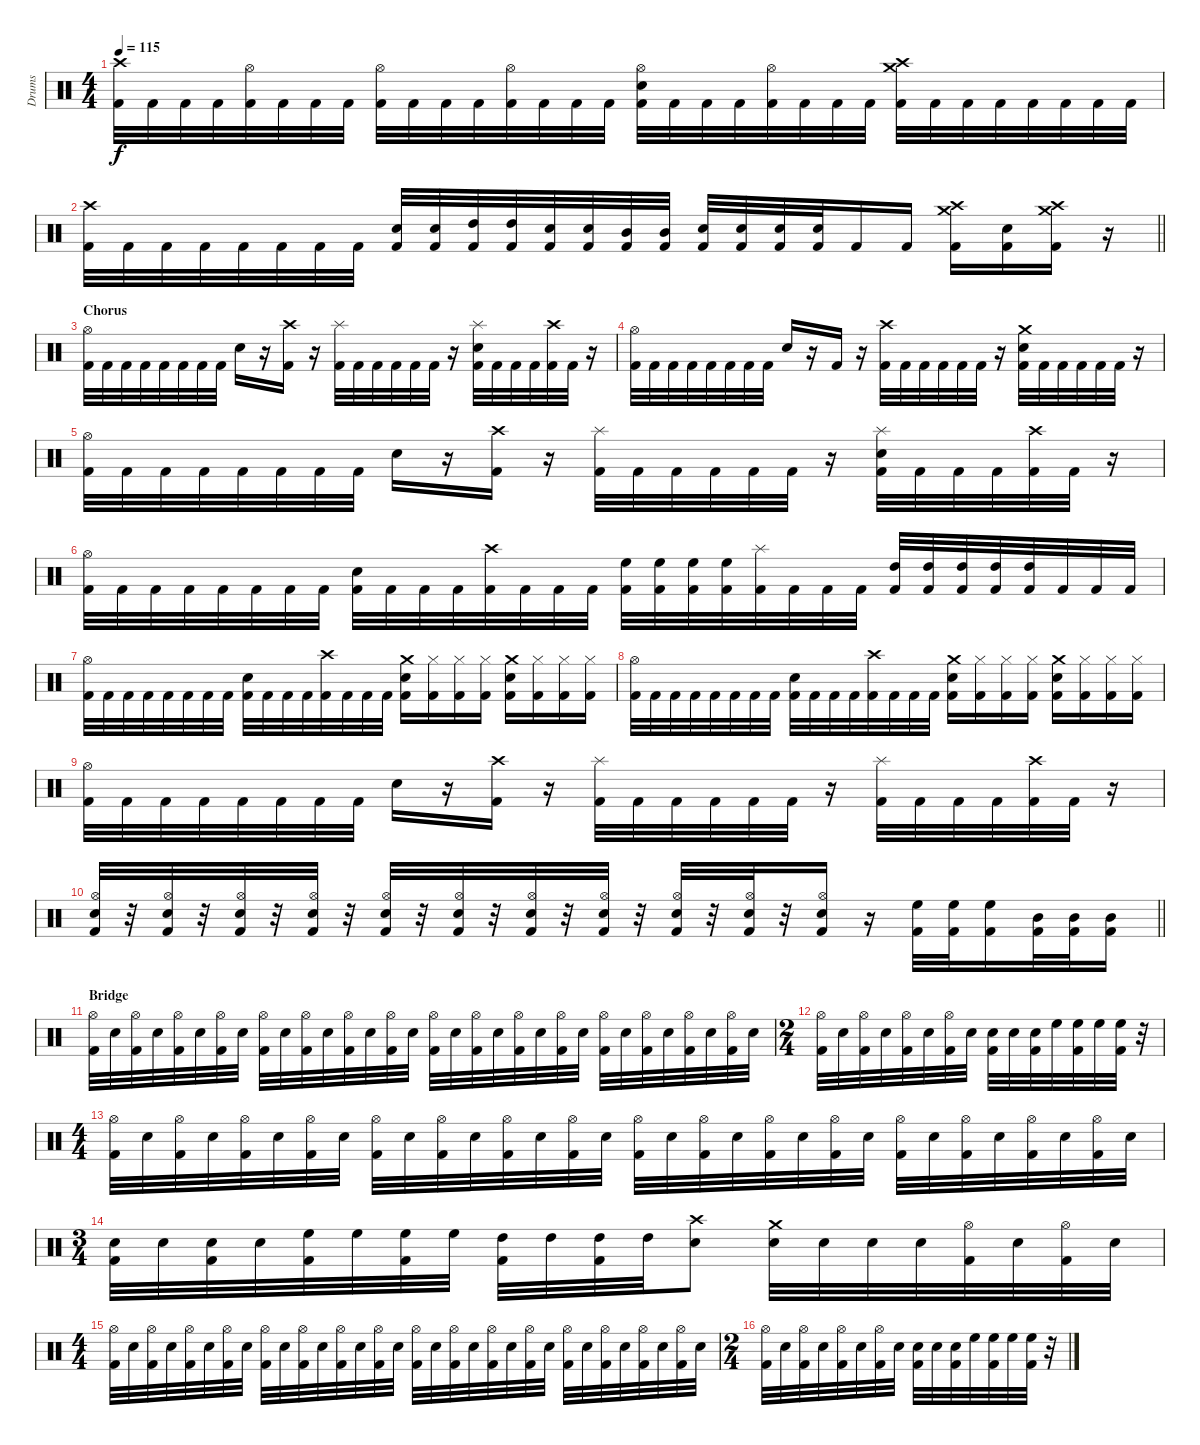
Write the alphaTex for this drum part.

\track ("Drums" "Drums") {instrument percussion}
\staff {score}
\articulation defaults
\ts (4 4)
\tempo 115
\clef neutral
\ks c
("Crash high (hit)" "Kick (hit) 2").32{dy f} "Kick (hit) 2".32 "Kick (hit) 2".32 "Kick (hit) 2".32 ("Hi-Hat (open)" "Kick (hit) 2").32 "Kick (hit) 2".32 "Kick (hit) 2".32 "Kick (hit) 2".32 ("Hi-Hat (open)" "Kick (hit) 2").32 "Kick (hit) 2".32 "Kick (hit) 2".32 "Kick (hit) 2".32 ("Hi-Hat (open)" "Kick (hit) 2").32 "Kick (hit) 2".32 "Kick (hit) 2".32 "Kick (hit) 2".32 ("Hi-Hat (open)" "Electric Snare (hit)" "Kick (hit) 2").32 "Kick (hit) 2".32 "Kick (hit) 2".32 "Kick (hit) 2".32 ("Hi-Hat (open)" "Kick (hit) 2").32 "Kick (hit) 2".32 "Kick (hit) 2".32 "Kick (hit) 2".32 ("Crash medium (hit)" "Crash high (hit)" "Kick (hit) 2").32 "Kick (hit) 2".32 "Kick (hit) 2".32 "Kick (hit) 2".32 "Kick (hit) 2".32 "Kick (hit) 2".32 "Kick (hit) 2".32 "Kick (hit) 2".32 |
\barLineRight lightlight
("Crash high (hit)" "Kick (hit) 2").32 "Kick (hit) 2".32 "Kick (hit) 2".32 "Kick (hit) 2".32 "Kick (hit) 2".32 "Kick (hit) 2".32 "Kick (hit) 2".32 "Kick (hit) 2".32 ("Electric Snare (hit)" "Kick (hit) 2").32 ("Electric Snare (hit)" "Kick (hit) 2").32 ("High Tom (hit)" "Kick (hit) 2").32 ("High Tom (hit)" "Kick (hit) 2").32 ("Electric Snare (hit)" "Kick (hit) 2").32 ("Electric Snare (hit)" "Kick (hit) 2").32 ("Mid Tom (hit)" "Kick (hit) 2").32 ("Mid Tom (hit)" "Kick (hit) 2").32 ("Electric Snare (hit)" "Kick (hit) 2").32 ("Electric Snare (hit)" "Kick (hit) 2").32 ("Electric Snare (hit)" "Kick (hit) 2").32 ("Electric Snare (hit)" "Kick (hit) 2").32 "Kick (hit) 2".16 "Kick (hit) 2".16 ("Crash medium (hit)" "Crash high (hit)" "Kick (hit) 2").16 ("Electric Snare (hit)" "Kick (hit) 2").16 ("Crash medium (hit)" "Crash high (hit)" "Kick (hit) 2").16 r.16 |
\section ("" "Chorus")
("Hi-Hat (open)" "Kick (hit) 2").32 "Kick (hit) 2".32 "Kick (hit) 2".32 "Kick (hit) 2".32 "Kick (hit) 2".32 "Kick (hit) 2".32 "Kick (hit) 2".32 "Kick (hit) 2".32 "Electric Snare (hit)".16 r.16 ("Crash high (hit)" "Kick (hit) 2").16 r.16 ("Splash (hit)" "Kick (hit) 2").32 "Kick (hit) 2".32 "Kick (hit) 2".32 "Kick (hit) 2".32 "Kick (hit) 2".32 "Kick (hit) 2".32 r.16 ("Splash (hit)" "Electric Snare (hit)" "Kick (hit) 2").32 "Kick (hit) 2".32 "Kick (hit) 2".32 "Kick (hit) 2".32 ("Crash high (hit)" "Kick (hit) 2").32 "Kick (hit) 2".32 r.16 |
("Hi-Hat (open)" "Kick (hit) 2").32 "Kick (hit) 2".32 "Kick (hit) 2".32 "Kick (hit) 2".32 "Kick (hit) 2".32 "Kick (hit) 2".32 "Kick (hit) 2".32 "Kick (hit) 2".32 "Electric Snare (hit)".16 r.16 "Kick (hit) 2".16 r.16 ("Crash high (hit)" "Kick (hit) 2").32 "Kick (hit) 2".32 "Kick (hit) 2".32 "Kick (hit) 2".32 "Kick (hit) 2".32 "Kick (hit) 2".32 r.16 ("Crash medium (hit)" "Electric Snare (hit)" "Kick (hit) 2").32 "Kick (hit) 2".32 "Kick (hit) 2".32 "Kick (hit) 2".32 "Kick (hit) 2".32 "Kick (hit) 2".32 r.16 |
("Hi-Hat (open)" "Kick (hit) 2").32 "Kick (hit) 2".32 "Kick (hit) 2".32 "Kick (hit) 2".32 "Kick (hit) 2".32 "Kick (hit) 2".32 "Kick (hit) 2".32 "Kick (hit) 2".32 "Electric Snare (hit)".16 r.16 ("Crash high (hit)" "Kick (hit) 2").16 r.16 ("Splash (hit)" "Kick (hit) 2").32 "Kick (hit) 2".32 "Kick (hit) 2".32 "Kick (hit) 2".32 "Kick (hit) 2".32 "Kick (hit) 2".32 r.16 ("Splash (hit)" "Electric Snare (hit)" "Kick (hit) 2").32 "Kick (hit) 2".32 "Kick (hit) 2".32 "Kick (hit) 2".32 ("Crash high (hit)" "Kick (hit) 2").32 "Kick (hit) 2".32 r.16 |
("Hi-Hat (open)" "Kick (hit) 2").32 "Kick (hit) 2".32 "Kick (hit) 2".32 "Kick (hit) 2".32 "Kick (hit) 2".32 "Kick (hit) 2".32 "Kick (hit) 2".32 "Kick (hit) 2".32 ("Electric Snare (hit)" "Kick (hit) 2").32 "Kick (hit) 2".32 "Kick (hit) 2".32 "Kick (hit) 2".32 ("Crash high (hit)" "Kick (hit) 2").32 "Kick (hit) 2".32 "Kick (hit) 2".32 "Kick (hit) 2".32 ("High Floor Tom (hit)" "Kick (hit) 2").32 ("High Floor Tom (hit)" "Kick (hit) 2").32 ("High Floor Tom (hit)" "Kick (hit) 2").32 ("High Floor Tom (hit)" "Kick (hit) 2").32 ("Splash (hit)" "Kick (hit) 2").32 "Kick (hit) 2".32 "Kick (hit) 2".32 "Kick (hit) 2".32 ("High Tom (hit)" "Kick (hit) 2").32 ("High Tom (hit)" "Kick (hit) 2").32 ("High Tom (hit)" "Kick (hit) 2").32 ("High Tom (hit)" "Kick (hit) 2").32 ("High Tom (hit)" "Kick (hit) 2").32 "Kick (hit) 2".32 "Kick (hit) 2".32 "Kick (hit) 2".32 |
("Hi-Hat (open)" "Kick (hit) 2").32 "Kick (hit) 2".32 "Kick (hit) 2".32 "Kick (hit) 2".32 "Kick (hit) 2".32 "Kick (hit) 2".32 "Kick (hit) 2".32 "Kick (hit) 2".32 ("Electric Snare (hit)" "Kick (hit) 2").32 "Kick (hit) 2".32 "Kick (hit) 2".32 "Kick (hit) 2".32 ("Crash high (hit)" "Kick (hit) 2").32 "Kick (hit) 2".32 "Kick (hit) 2".32 "Kick (hit) 2".32 ("Crash medium (hit)" "Electric Snare (hit)" "Kick (hit) 2").16 ("Hi-Hat (closed)" "Kick (hit) 2").16 ("Hi-Hat (closed)" "Kick (hit) 2").16 ("Hi-Hat (closed)" "Kick (hit) 2").16 ("Crash medium (hit)" "Electric Snare (hit)" "Kick (hit) 2").16 ("Hi-Hat (closed)" "Kick (hit) 2").16 ("Hi-Hat (closed)" "Kick (hit) 2").16 ("Hi-Hat (closed)" "Kick (hit) 2").16 |
("Hi-Hat (open)" "Kick (hit) 2").32 "Kick (hit) 2".32 "Kick (hit) 2".32 "Kick (hit) 2".32 "Kick (hit) 2".32 "Kick (hit) 2".32 "Kick (hit) 2".32 "Kick (hit) 2".32 ("Electric Snare (hit)" "Kick (hit) 2").32 "Kick (hit) 2".32 "Kick (hit) 2".32 "Kick (hit) 2".32 ("Crash high (hit)" "Kick (hit) 2").32 "Kick (hit) 2".32 "Kick (hit) 2".32 "Kick (hit) 2".32 ("Crash medium (hit)" "Electric Snare (hit)" "Kick (hit) 2").16 ("Hi-Hat (closed)" "Kick (hit) 2").16 ("Hi-Hat (closed)" "Kick (hit) 2").16 ("Hi-Hat (closed)" "Kick (hit) 2").16 ("Crash medium (hit)" "Electric Snare (hit)" "Kick (hit) 2").16 ("Hi-Hat (closed)" "Kick (hit) 2").16 ("Hi-Hat (closed)" "Kick (hit) 2").16 ("Hi-Hat (closed)" "Kick (hit) 2").16 |
("Hi-Hat (open)" "Kick (hit) 2").32 "Kick (hit) 2".32 "Kick (hit) 2".32 "Kick (hit) 2".32 "Kick (hit) 2".32 "Kick (hit) 2".32 "Kick (hit) 2".32 "Kick (hit) 2".32 "Electric Snare (hit)".16 r.16 ("Crash high (hit)" "Kick (hit) 2").16 r.16 ("Splash (hit)" "Kick (hit) 2").32 "Kick (hit) 2".32 "Kick (hit) 2".32 "Kick (hit) 2".32 "Kick (hit) 2".32 "Kick (hit) 2".32 r.16 ("Splash (hit)" "Kick (hit) 2").32 "Kick (hit) 2".32 "Kick (hit) 2".32 "Kick (hit) 2".32 ("Crash high (hit)" "Kick (hit) 2").32 "Kick (hit) 2".32 r.16 |
\barLineRight lightlight
("Hi-Hat (open)" "Electric Snare (hit)" "Kick (hit) 2").32 r.32 ("Hi-Hat (open)" "Electric Snare (hit)" "Kick (hit) 2").32 r.32 ("Hi-Hat (open)" "Electric Snare (hit)" "Kick (hit) 2").32 r.32 ("Hi-Hat (open)" "Electric Snare (hit)" "Kick (hit) 2").32 r.32 ("Hi-Hat (open)" "Electric Snare (hit)" "Kick (hit) 2").32 r.32 ("Hi-Hat (open)" "Electric Snare (hit)" "Kick (hit) 2").32 r.32 ("Hi-Hat (open)" "Electric Snare (hit)" "Kick (hit) 2").32 r.32 ("Hi-Hat (open)" "Electric Snare (hit)" "Kick (hit) 2").32 r.32 ("Hi-Hat (open)" "Electric Snare (hit)" "Kick (hit) 2").32 r.32 ("Hi-Hat (open)" "Electric Snare (hit)" "Kick (hit) 2").32 r.32 ("Hi-Hat (open)" "Electric Snare (hit)" "Kick (hit) 2").16 r.16 ("High Floor Tom (hit)" "Kick (hit) 2").32 ("High Floor Tom (hit)" "Kick (hit) 2").32 ("High Floor Tom (hit)" "Kick (hit) 2").16 ("Mid Tom (hit)" "Kick (hit) 2").32 ("Mid Tom (hit)" "Kick (hit) 2").32 ("Mid Tom (hit)" "Kick (hit) 2").16 |
\section ("" "Bridge")
("Hi-Hat (open)" "Kick (hit) 2").32 "Electric Snare (hit)".32 ("Hi-Hat (open)" "Kick (hit) 2").32 "Electric Snare (hit)".32 ("Hi-Hat (open)" "Kick (hit) 2").32 "Electric Snare (hit)".32 ("Hi-Hat (open)" "Kick (hit) 2").32 "Electric Snare (hit)".32 ("Hi-Hat (open)" "Kick (hit) 2").32 "Electric Snare (hit)".32 ("Hi-Hat (open)" "Kick (hit) 2").32 "Electric Snare (hit)".32 ("Hi-Hat (open)" "Kick (hit) 2").32 "Electric Snare (hit)".32 ("Hi-Hat (open)" "Kick (hit) 2").32 "Electric Snare (hit)".32 ("Hi-Hat (open)" "Kick (hit) 2").32 "Electric Snare (hit)".32 ("Hi-Hat (open)" "Kick (hit) 2").32 "Electric Snare (hit)".32 ("Hi-Hat (open)" "Kick (hit) 2").32 "Electric Snare (hit)".32 ("Hi-Hat (open)" "Kick (hit) 2").32 "Electric Snare (hit)".32 ("Hi-Hat (open)" "Kick (hit) 2").32 "Electric Snare (hit)".32 ("Hi-Hat (open)" "Kick (hit) 2").32 "Electric Snare (hit)".32 ("Hi-Hat (open)" "Kick (hit) 2").32 "Electric Snare (hit)".32 ("Hi-Hat (open)" "Kick (hit) 2").32 "Electric Snare (hit)".32 |
\ts (2 4)
("Hi-Hat (open)" "Kick (hit) 2").32 "Electric Snare (hit)".32 ("Hi-Hat (open)" "Kick (hit) 2").32 "Electric Snare (hit)".32 ("Hi-Hat (open)" "Kick (hit) 2").32 "Electric Snare (hit)".32 ("Hi-Hat (open)" "Kick (hit) 2").32 "Electric Snare (hit)".32 ("Electric Snare (hit)" "Kick (hit) 2").32 "Electric Snare (hit)".32 ("Electric Snare (hit)" "Kick (hit) 2").32 "High Floor Tom (hit)".32 ("High Floor Tom (hit)" "Kick (hit) 2").32 "High Floor Tom (hit)".32 ("High Floor Tom (hit)" "Kick (hit) 2").32 r.32 |
\ts (4 4)
("Hi-Hat (open)" "Kick (hit) 2").32 "Electric Snare (hit)".32 ("Hi-Hat (open)" "Kick (hit) 2").32 "Electric Snare (hit)".32 ("Hi-Hat (open)" "Kick (hit) 2").32 "Electric Snare (hit)".32 ("Hi-Hat (open)" "Kick (hit) 2").32 "Electric Snare (hit)".32 ("Hi-Hat (open)" "Kick (hit) 2").32 "Electric Snare (hit)".32 ("Hi-Hat (open)" "Kick (hit) 2").32 "Electric Snare (hit)".32 ("Hi-Hat (open)" "Kick (hit) 2").32 "Electric Snare (hit)".32 ("Hi-Hat (open)" "Kick (hit) 2").32 "Electric Snare (hit)".32 ("Hi-Hat (open)" "Kick (hit) 2").32 "Electric Snare (hit)".32 ("Hi-Hat (open)" "Kick (hit) 2").32 "Electric Snare (hit)".32 ("Hi-Hat (open)" "Kick (hit) 2").32 "Electric Snare (hit)".32 ("Hi-Hat (open)" "Kick (hit) 2").32 "Electric Snare (hit)".32 ("Hi-Hat (open)" "Kick (hit) 2").32 "Electric Snare (hit)".32 ("Hi-Hat (open)" "Kick (hit) 2").32 "Electric Snare (hit)".32 ("Hi-Hat (open)" "Kick (hit) 2").32 "Electric Snare (hit)".32 ("Hi-Hat (open)" "Kick (hit) 2").32 "Electric Snare (hit)".32 |
\ts (3 4)
("Electric Snare (hit)" "Kick (hit) 2").32 "Electric Snare (hit)".32 ("Electric Snare (hit)" "Kick (hit) 2").32 "Electric Snare (hit)".32 ("High Floor Tom (hit)" "Kick (hit) 2").32 "High Floor Tom (hit)".32 ("High Floor Tom (hit)" "Kick (hit) 2").32 "High Floor Tom (hit)".32 ("High Tom (hit)" "Kick (hit) 2").32 "High Tom (hit)".32 ("High Tom (hit)" "Kick (hit) 2").32 "High Tom (hit)".32 ("Crash high (hit)" "Electric Snare (hit)").8 ("Crash medium (hit)" "Electric Snare (hit)").32 "Electric Snare (hit)".32 "Electric Snare (hit)".32 "Electric Snare (hit)".32 ("Hi-Hat (open)" "Kick (hit) 2").32 "Electric Snare (hit)".32 ("Hi-Hat (open)" "Kick (hit) 2").32 "Electric Snare (hit)".32 |
\ts (4 4)
("Hi-Hat (open)" "Kick (hit) 2").32 "Electric Snare (hit)".32 ("Hi-Hat (open)" "Kick (hit) 2").32 "Electric Snare (hit)".32 ("Hi-Hat (open)" "Kick (hit) 2").32 "Electric Snare (hit)".32 ("Hi-Hat (open)" "Kick (hit) 2").32 "Electric Snare (hit)".32 ("Hi-Hat (open)" "Kick (hit) 2").32 "Electric Snare (hit)".32 ("Hi-Hat (open)" "Kick (hit) 2").32 "Electric Snare (hit)".32 ("Hi-Hat (open)" "Kick (hit) 2").32 "Electric Snare (hit)".32 ("Hi-Hat (open)" "Kick (hit) 2").32 "Electric Snare (hit)".32 ("Hi-Hat (open)" "Kick (hit) 2").32 "Electric Snare (hit)".32 ("Hi-Hat (open)" "Kick (hit) 2").32 "Electric Snare (hit)".32 ("Hi-Hat (open)" "Kick (hit) 2").32 "Electric Snare (hit)".32 ("Hi-Hat (open)" "Kick (hit) 2").32 "Electric Snare (hit)".32 ("Hi-Hat (open)" "Kick (hit) 2").32 "Electric Snare (hit)".32 ("Hi-Hat (open)" "Kick (hit) 2").32 "Electric Snare (hit)".32 ("Hi-Hat (open)" "Kick (hit) 2").32 "Electric Snare (hit)".32 ("Hi-Hat (open)" "Kick (hit) 2").32 "Electric Snare (hit)".32 |
\ts (2 4)
("Hi-Hat (open)" "Kick (hit) 2").32 "Electric Snare (hit)".32 ("Hi-Hat (open)" "Kick (hit) 2").32 "Electric Snare (hit)".32 ("Hi-Hat (open)" "Kick (hit) 2").32 "Electric Snare (hit)".32 ("Hi-Hat (open)" "Kick (hit) 2").32 "Electric Snare (hit)".32 ("Electric Snare (hit)" "Kick (hit) 2").32 "Electric Snare (hit)".32 ("Electric Snare (hit)" "Kick (hit) 2").32 "High Floor Tom (hit)".32 ("High Floor Tom (hit)" "Kick (hit) 2").32 "High Floor Tom (hit)".32 ("High Floor Tom (hit)" "Kick (hit) 2").32 r.32
